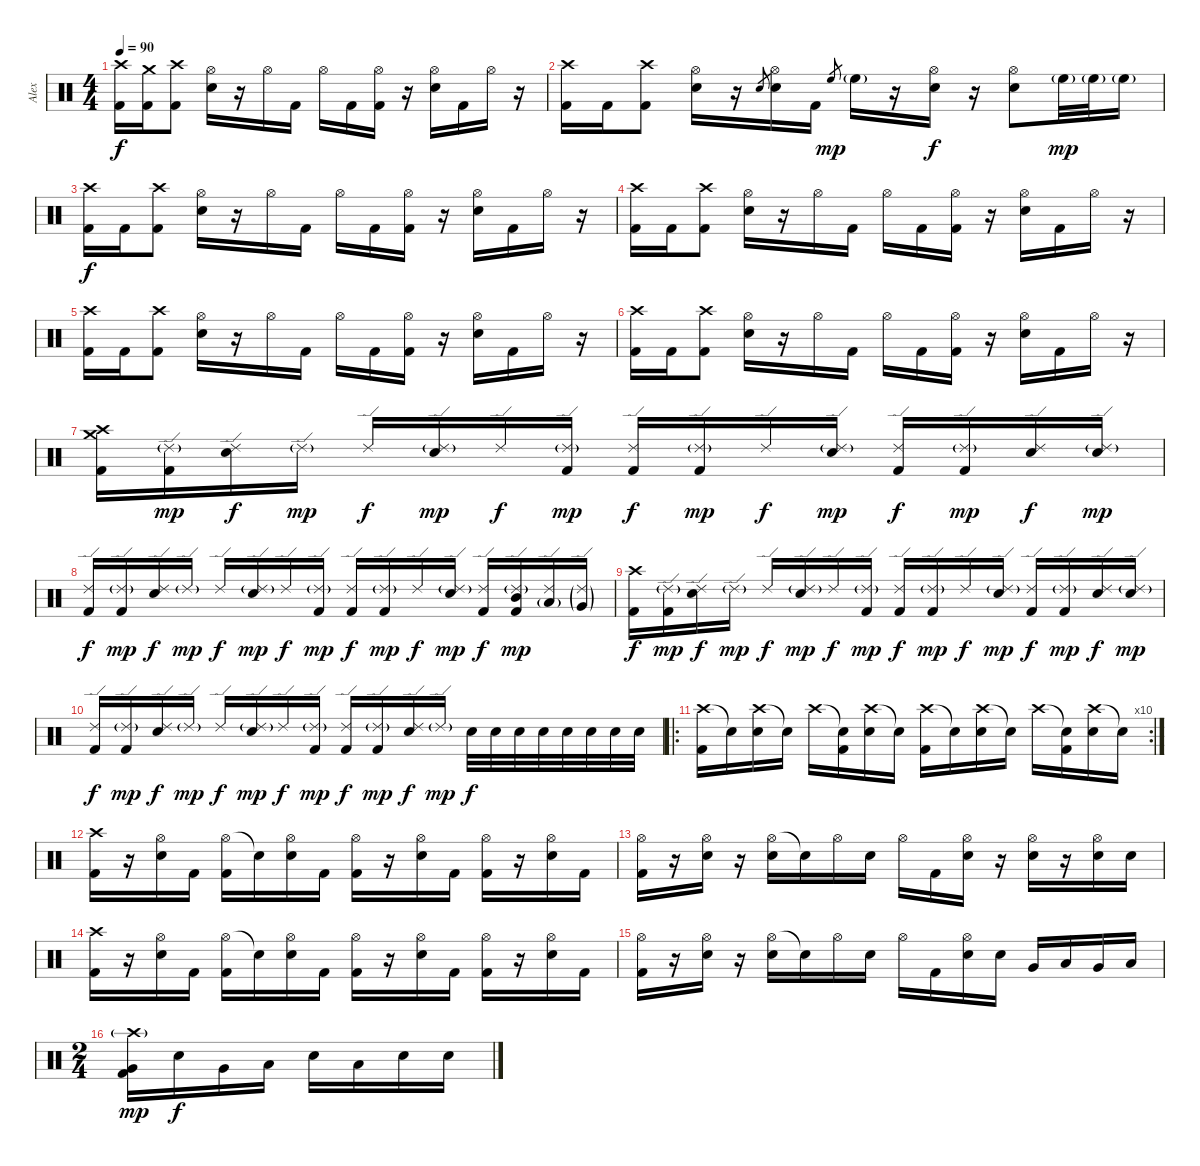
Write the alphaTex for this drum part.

\track ("Alex" "Alex") {instrument percussion}
\staff {score}
\articulation defaults
\ts (4 4)
\tempo 90
\clef neutral
\ks c
("Crash high (hit)" "Kick (hit) 2").16{dy f} ("Crash medium (hit)" "Kick (hit) 2").16 ("Crash high (hit)" "Kick (hit) 2").8 ("Hi-Hat (open)" "Electric Snare (hit)").16 r.16 "Hi-Hat (open)".16 "Kick (hit) 2".16 "Hi-Hat (open)".16 "Kick (hit) 2".16 ("Hi-Hat (open)" "Kick (hit) 2").16 r.16 ("Hi-Hat (open)" "Electric Snare (hit)").16 "Kick (hit) 2".16 "Hi-Hat (open)".16 r.16 |
("Crash high (hit)" "Kick (hit) 2").16 "Kick (hit) 2".16 ("Crash high (hit)" "Kick (hit) 2").8 ("Hi-Hat (open)" "Electric Snare (hit)").16 r.16 "Electric Snare (hit)".8{gr} ("Hi-Hat (open)" "Electric Snare (hit)").16 "Kick (hit) 2".16 "High Floor Tom (hit)".8{gr dy mp} "High Floor Tom (hit)"{g}.16 r.16 ("Hi-Hat (open)" "Electric Snare (hit)").16{dy f} r.16 ("Hi-Hat (open)" "Electric Snare (hit)").8 "High Floor Tom (hit)"{g}.32{dy mp} "High Floor Tom (hit)"{g}.32 "High Floor Tom (hit)"{g}.16 |
("Crash high (hit)" "Kick (hit) 2").16{dy f} "Kick (hit) 2".16 ("Crash high (hit)" "Kick (hit) 2").8 ("Hi-Hat (open)" "Electric Snare (hit)").16 r.16 "Hi-Hat (open)".16 "Kick (hit) 2".16 "Hi-Hat (open)".16 "Kick (hit) 2".16 ("Hi-Hat (open)" "Kick (hit) 2").16 r.16 ("Hi-Hat (open)" "Electric Snare (hit)").16 "Kick (hit) 2".16 "Hi-Hat (open)".16 r.16 |
("Crash high (hit)" "Kick (hit) 2").16 "Kick (hit) 2".16 ("Crash high (hit)" "Kick (hit) 2").8 ("Hi-Hat (open)" "Electric Snare (hit)").16 r.16 "Hi-Hat (open)".16 "Kick (hit) 2".16 "Hi-Hat (open)".16 "Kick (hit) 2".16 ("Hi-Hat (open)" "Kick (hit) 2").16 r.16 ("Hi-Hat (open)" "Electric Snare (hit)").16 "Kick (hit) 2".16 "Hi-Hat (open)".16 r.16 |
("Crash high (hit)" "Kick (hit) 2").16 "Kick (hit) 2".16 ("Crash high (hit)" "Kick (hit) 2").8 ("Hi-Hat (open)" "Electric Snare (hit)").16 r.16 "Hi-Hat (open)".16 "Kick (hit) 2".16 "Hi-Hat (open)".16 "Kick (hit) 2".16 ("Hi-Hat (open)" "Kick (hit) 2").16 r.16 ("Hi-Hat (open)" "Electric Snare (hit)").16 "Kick (hit) 2".16 "Hi-Hat (open)".16 r.16 |
("Crash high (hit)" "Kick (hit) 2").16 "Kick (hit) 2".16 ("Crash high (hit)" "Kick (hit) 2").8 ("Hi-Hat (open)" "Electric Snare (hit)").16 r.16 "Hi-Hat (open)".16 "Kick (hit) 2".16 "Hi-Hat (open)".16 "Kick (hit) 2".16 ("Hi-Hat (open)" "Kick (hit) 2").16 r.16 ("Hi-Hat (open)" "Electric Snare (hit)").16 "Kick (hit) 2".16 "Hi-Hat (open)".16 r.16 |
("Crash high (hit)" "Crash medium (hit)" "Kick (hit) 2").16 ("Ride (edge) 2"{g} "Kick (hit) 2").16{dy mp} ("Ride (edge) 2" "Electric Snare (hit)").16{dy f} "Ride (edge) 2"{g}.16{dy mp} "Ride (edge) 2".16{dy f} ("Ride (edge) 2"{g} "Electric Snare (hit)").16{dy mp} "Ride (edge) 2".16{dy f} ("Ride (edge) 2"{g} "Kick (hit) 2").16{dy mp} ("Ride (edge) 2" "Kick (hit) 2").16{dy f} ("Ride (edge) 2"{g} "Kick (hit) 2").16{dy mp} "Ride (edge) 2".16{dy f} ("Ride (edge) 2"{g} "Electric Snare (hit)").16{dy mp} ("Ride (edge) 2" "Kick (hit) 2").16{dy f} ("Ride (edge) 2"{g} "Kick (hit) 2").16{dy mp} ("Ride (edge) 2" "Electric Snare (hit)").16{dy f} ("Ride (edge) 2"{g} "Electric Snare (hit)").16{dy mp} |
("Ride (edge) 2" "Kick (hit) 2").16{dy f} ("Ride (edge) 2"{g} "Kick (hit) 2").16{dy mp} ("Ride (edge) 2" "Electric Snare (hit)").16{dy f} "Ride (edge) 2"{g}.16{dy mp} "Ride (edge) 2".16{dy f} ("Ride (edge) 2"{g} "Electric Snare (hit)").16{dy mp} "Ride (edge) 2".16{dy f} ("Ride (edge) 2"{g} "Kick (hit) 2").16{dy mp} ("Ride (edge) 2" "Kick (hit) 2").16{dy f} ("Ride (edge) 2"{g} "Kick (hit) 2").16{dy mp} "Ride (edge) 2".16{dy f} ("Ride (edge) 2"{g} "Electric Snare (hit)").16{dy mp} ("Ride (edge) 2" "Kick (hit) 2").16{dy f} ("Ride (edge) 2"{g} "Mid Tom (hit)" "Kick (hit) 2").16{dy mp} ("Ride (edge) 2" "Low Tom (hit)"{g}).16 ("Ride (edge) 2"{g} "Very Low Tom (hit)"{g}).16 |
("Crash high (hit)" "Kick (hit) 2").16{dy f} ("Ride (edge) 2"{g} "Kick (hit) 2").16{dy mp} ("Ride (edge) 2" "Electric Snare (hit)").16{dy f} "Ride (edge) 2"{g}.16{dy mp} "Ride (edge) 2".16{dy f} ("Ride (edge) 2"{g} "Electric Snare (hit)").16{dy mp} "Ride (edge) 2".16{dy f} ("Ride (edge) 2"{g} "Kick (hit) 2").16{dy mp} ("Ride (edge) 2" "Kick (hit) 2").16{dy f} ("Ride (edge) 2"{g} "Kick (hit) 2").16{dy mp} "Ride (edge) 2".16{dy f} ("Ride (edge) 2"{g} "Electric Snare (hit)").16{dy mp} ("Ride (edge) 2" "Kick (hit) 2").16{dy f} ("Ride (edge) 2"{g} "Kick (hit) 2").16{dy mp} ("Ride (edge) 2" "Electric Snare (hit)").16{dy f} ("Ride (edge) 2"{g} "Electric Snare (hit)").16{dy mp} |
("Ride (edge) 2" "Kick (hit) 2").16{dy f} ("Ride (edge) 2"{g} "Kick (hit) 2").16{dy mp} ("Ride (edge) 2" "Electric Snare (hit)").16{dy f} "Ride (edge) 2"{g}.16{dy mp} "Ride (edge) 2".16{dy f} ("Ride (edge) 2"{g} "Electric Snare (hit)").16{dy mp} "Ride (edge) 2".16{dy f} ("Ride (edge) 2"{g} "Kick (hit) 2").16{dy mp} ("Ride (edge) 2" "Kick (hit) 2").16{dy f} ("Ride (edge) 2"{g} "Kick (hit) 2").16{dy mp} ("Ride (edge) 2" "Electric Snare (hit)").16{dy f} "Ride (edge) 2"{g}.16{dy mp} "Electric Snare (hit)".32{dy f} "Electric Snare (hit)".32 "Electric Snare (hit)".32 "Electric Snare (hit)".32 "Electric Snare (hit)".32 "Electric Snare (hit)".32 "Electric Snare (hit)".32 "Electric Snare (hit)".32 |
\ro
\rc 10
("Crash high (hit)" "Kick (hit) 2").16 "Snare (hit)"{t}.16 ("Crash high (hit)" "Electric Snare (hit)").16 "Snare (hit)"{t}.16 "Crash high (hit)".16 ("Snare (hit)"{t} "Kick (hit) 2").16 ("Crash high (hit)" "Electric Snare (hit)").16 "Snare (hit)"{t}.16 ("Crash high (hit)" "Kick (hit) 2").16 "Snare (hit)"{t}.16 ("Crash high (hit)" "Electric Snare (hit)").16 "Snare (hit)"{t}.16 "Crash high (hit)".16 ("Snare (hit)"{t} "Kick (hit) 2").16 ("Crash high (hit)" "Electric Snare (hit)").16 "Snare (hit)"{t}.16 |
("Crash high (hit)" "Kick (hit) 2").16 r.16 ("Hi-Hat (open)" "Electric Snare (hit)").16 "Kick (hit) 2".16 ("Hi-Hat (open)" "Kick (hit) 2").16 "Snare (hit)"{t}.16 ("Hi-Hat (open)" "Electric Snare (hit)").16 "Kick (hit) 2".16 ("Hi-Hat (open)" "Kick (hit) 2").16 r.16 ("Hi-Hat (open)" "Electric Snare (hit)").16 "Kick (hit) 2".16 ("Hi-Hat (open)" "Kick (hit) 2").16 r.16 ("Hi-Hat (open)" "Electric Snare (hit)").16 "Kick (hit) 2".16 |
("Hi-Hat (open)" "Kick (hit) 2").16 r.16 ("Hi-Hat (open)" "Electric Snare (hit)").16 r.16 ("Hi-Hat (open)" "Electric Snare (hit)").16 "Snare (hit)"{t}.16 "Hi-Hat (open)".16 "Electric Snare (hit)".16 "Hi-Hat (open)".16 "Kick (hit) 2".16 ("Hi-Hat (open)" "Electric Snare (hit)").16 r.16 ("Hi-Hat (open)" "Electric Snare (hit)").16 r.16 ("Hi-Hat (open)" "Electric Snare (hit)").16 "Electric Snare (hit)".16 |
("Crash high (hit)" "Kick (hit) 2").16 r.16 ("Hi-Hat (open)" "Electric Snare (hit)").16 "Kick (hit) 2".16 ("Hi-Hat (open)" "Kick (hit) 2").16 "Snare (hit)"{t}.16 ("Hi-Hat (open)" "Electric Snare (hit)").16 "Kick (hit) 2".16 ("Hi-Hat (open)" "Kick (hit) 2").16 r.16 ("Hi-Hat (open)" "Electric Snare (hit)").16 "Kick (hit) 2".16 ("Hi-Hat (open)" "Kick (hit) 2").16 r.16 ("Hi-Hat (open)" "Electric Snare (hit)").16 "Kick (hit) 2".16 |
("Hi-Hat (open)" "Kick (hit) 2").16 r.16 ("Hi-Hat (open)" "Electric Snare (hit)").16 r.16 ("Hi-Hat (open)" "Electric Snare (hit)").16 "Snare (hit)"{t}.16 "Hi-Hat (open)".16 "Electric Snare (hit)".16 "Hi-Hat (open)".16 "Kick (hit) 2".16 ("Hi-Hat (open)" "Electric Snare (hit)").16 "Electric Snare (hit)".16 "Very Low Tom (hit)".16 "Low Tom (hit)".16 "Very Low Tom (hit)".16 "Low Tom (hit)".16 |
\ts (2 4)
("Crash high (hit)"{g} "Very Low Tom (hit)" "Kick (hit) 2").16{dy mp} "Electric Snare (hit)".16{dy f} "Very Low Tom (hit)".16 "Low Tom (hit)".16 "Electric Snare (hit)".16 "Low Tom (hit)".16 "Electric Snare (hit)".16 "Electric Snare (hit)".16
